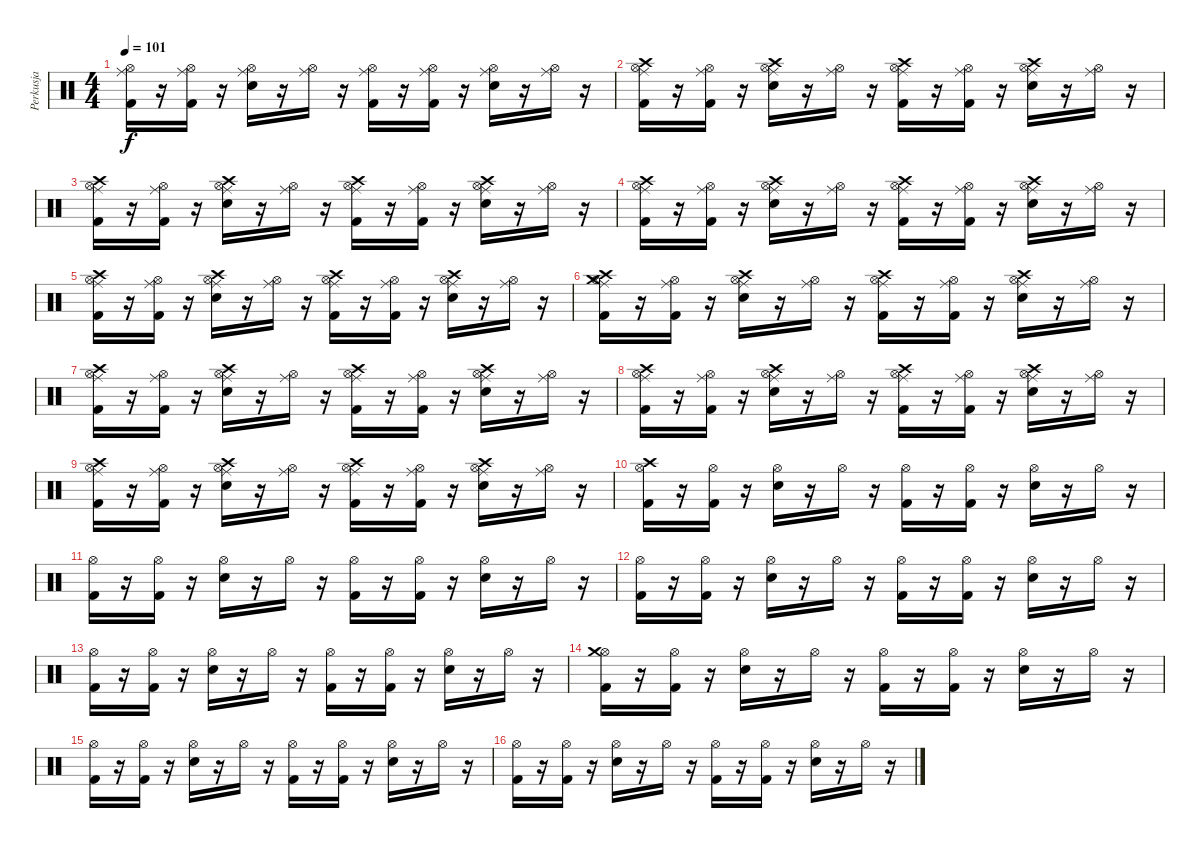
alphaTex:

\track ("Perkusja" "Perkusja") {instrument percussion}
\staff {score}
\articulation defaults
\ts (4 4)
\tempo 101
\clef neutral
\ks c
("Kick (hit) 2" "Hi-Hat (open)" "Ride (middle)").16{dy f} r.16 ("Kick (hit) 2" "Hi-Hat (open)" "Ride (middle)").16 r.16 ("Hi-Hat (open)" "Snare (hit) 2" "Ride (middle)").16 r.16 ("Ride (middle)" "Hi-Hat (open)").16 r.16 ("Ride (middle)" "Hi-Hat (open)" "Kick (hit) 2").16 r.16 ("Hi-Hat (open)" "Ride (middle)" "Kick (hit) 2").16 r.16 ("Hi-Hat (open)" "Ride (middle)" "Snare (hit) 2").16 r.16 ("Ride (middle)" "Hi-Hat (open)").16 r.16 |
("Kick (hit) 2" "Crash high (hit)" "Ride (middle)" "Hi-Hat (open)").16 r.16 ("Ride (middle)" "Kick (hit) 2" "Hi-Hat (open)").16 r.16 ("Crash high (hit)" "Hi-Hat (open)" "Ride (middle)" "Snare (hit) 2").16 r.16 ("Ride (middle)" "Hi-Hat (open)").16 r.16 ("Kick (hit) 2" "Ride (middle)" "Crash high (hit)" "Hi-Hat (open)").16 r.16 ("Hi-Hat (open)" "Kick (hit) 2" "Ride (middle)").16 r.16 ("Crash high (hit)" "Ride (middle)" "Snare (hit) 2" "Hi-Hat (open)").16 r.16 ("Ride (middle)" "Hi-Hat (open)").16 r.16 |
("Crash high (hit)" "Hi-Hat (open)" "Kick (hit) 2" "Ride (middle)").16 r.16 ("Hi-Hat (open)" "Ride (middle)" "Kick (hit) 2").16 r.16 ("Snare (hit) 2" "Hi-Hat (open)" "Ride (middle)" "Crash high (hit)").16 r.16 ("Hi-Hat (open)" "Ride (middle)").16 r.16 ("Crash high (hit)" "Hi-Hat (open)" "Kick (hit) 2" "Ride (middle)").16 r.16 ("Ride (middle)" "Hi-Hat (open)" "Kick (hit) 2").16 r.16 ("Crash high (hit)" "Snare (hit) 2" "Hi-Hat (open)" "Ride (middle)").16 r.16 ("Hi-Hat (open)" "Ride (middle)").16 r.16 |
("Ride (middle)" "Hi-Hat (open)" "Kick (hit) 2" "Crash high (hit)").16 r.16 ("Hi-Hat (open)" "Ride (middle)" "Kick (hit) 2").16 r.16 ("Crash high (hit)" "Ride (middle)" "Snare (hit) 2" "Hi-Hat (open)").16 r.16 ("Ride (middle)" "Hi-Hat (open)").16 r.16 ("Kick (hit) 2" "Ride (middle)" "Crash high (hit)" "Hi-Hat (open)").16 r.16 ("Ride (middle)" "Hi-Hat (open)" "Kick (hit) 2").16 r.16 ("Crash high (hit)" "Ride (middle)" "Hi-Hat (open)" "Snare (hit) 2").16 r.16 ("Ride (middle)" "Hi-Hat (open)").16 r.16 |
("Ride (middle)" "Hi-Hat (open)" "Kick (hit) 2" "Crash high (hit)").16 r.16 ("Kick (hit) 2" "Hi-Hat (open)" "Ride (middle)").16 r.16 ("Hi-Hat (open)" "Crash high (hit)" "Ride (middle)" "Snare (hit) 2").16 r.16 ("Hi-Hat (open)" "Ride (middle)").16 r.16 ("Kick (hit) 2" "Hi-Hat (open)" "Crash high (hit)" "Ride (middle)").16 r.16 ("Kick (hit) 2" "Hi-Hat (open)" "Ride (middle)").16 r.16 ("Ride (middle)" "Hi-Hat (open)" "Crash high (hit)" "Snare (hit) 2").16 r.16 ("Ride (middle)" "Hi-Hat (open)").16 r.16 |
("Hi-Hat (open)" "Crash medium (hit)" "Ride (middle)" "Crash high (hit)" "Kick (hit) 2").16 r.16 ("Ride (middle)" "Hi-Hat (open)" "Kick (hit) 2").16 r.16 ("Ride (middle)" "Snare (hit) 2" "Hi-Hat (open)" "Crash high (hit)").16 r.16 ("Hi-Hat (open)" "Ride (middle)").16 r.16 ("Hi-Hat (open)" "Crash high (hit)" "Ride (middle)" "Kick (hit) 2").16 r.16 ("Hi-Hat (open)" "Ride (middle)" "Kick (hit) 2").16 r.16 ("Hi-Hat (open)" "Crash high (hit)" "Ride (middle)" "Snare (hit) 2").16 r.16 ("Ride (middle)" "Hi-Hat (open)").16 r.16 |
("Ride (middle)" "Kick (hit) 2" "Hi-Hat (open)" "Crash high (hit)").16 r.16 ("Hi-Hat (open)" "Ride (middle)" "Kick (hit) 2").16 r.16 ("Ride (middle)" "Hi-Hat (open)" "Snare (hit) 2" "Crash high (hit)").16 r.16 ("Hi-Hat (open)" "Ride (middle)").16 r.16 ("Crash high (hit)" "Ride (middle)" "Kick (hit) 2" "Hi-Hat (open)").16 r.16 ("Ride (middle)" "Kick (hit) 2" "Hi-Hat (open)").16 r.16 ("Snare (hit) 2" "Ride (middle)" "Crash high (hit)" "Hi-Hat (open)").16 r.16 ("Ride (middle)" "Hi-Hat (open)").16 r.16 |
("Kick (hit) 2" "Hi-Hat (open)" "Crash high (hit)" "Ride (middle)").16 r.16 ("Hi-Hat (open)" "Kick (hit) 2" "Ride (middle)").16 r.16 ("Hi-Hat (open)" "Crash high (hit)" "Snare (hit) 2" "Ride (middle)").16 r.16 ("Hi-Hat (open)" "Ride (middle)").16 r.16 ("Crash high (hit)" "Ride (middle)" "Hi-Hat (open)" "Kick (hit) 2").16 r.16 ("Ride (middle)" "Kick (hit) 2" "Hi-Hat (open)").16 r.16 ("Crash high (hit)" "Ride (middle)" "Snare (hit) 2" "Hi-Hat (open)").16 r.16 ("Hi-Hat (open)" "Ride (middle)").16 r.16 |
("Kick (hit) 2" "Hi-Hat (open)" "Crash high (hit)" "Ride (middle)").16 r.16 ("Hi-Hat (open)" "Ride (middle)" "Kick (hit) 2").16 r.16 ("Ride (middle)" "Hi-Hat (open)" "Snare (hit) 2" "Crash high (hit)").16 r.16 ("Hi-Hat (open)" "Ride (middle)").16 r.16 ("Ride (middle)" "Crash high (hit)" "Hi-Hat (open)" "Kick (hit) 2").16 r.16 ("Kick (hit) 2" "Ride (middle)" "Hi-Hat (open)").16 r.16 ("Snare (hit) 2" "Hi-Hat (open)" "Crash high (hit)" "Ride (middle)").16 r.16 ("Hi-Hat (open)" "Ride (middle)").16 r.16 |
("Crash high (hit)" "Hi-Hat (open)" "Kick (hit) 2").16 r.16 ("Kick (hit) 2" "Hi-Hat (open)").16 r.16 ("Hi-Hat (open)" "Snare (hit) 2").16 r.16 "Hi-Hat (open)".16 r.16 ("Hi-Hat (open)" "Kick (hit) 2").16 r.16 ("Kick (hit) 2" "Hi-Hat (open)").16 r.16 ("Hi-Hat (open)" "Snare (hit) 2").16 r.16 "Hi-Hat (open)".16 r.16 |
("Hi-Hat (open)" "Kick (hit) 2").16 r.16 ("Hi-Hat (open)" "Kick (hit) 2").16 r.16 ("Snare (hit) 2" "Hi-Hat (open)").16 r.16 "Hi-Hat (open)".16 r.16 ("Hi-Hat (open)" "Kick (hit) 2").16 r.16 ("Hi-Hat (open)" "Kick (hit) 2").16 r.16 ("Snare (hit) 2" "Hi-Hat (open)").16 r.16 "Hi-Hat (open)".16 r.16 |
("Hi-Hat (open)" "Kick (hit) 2").16 r.16 ("Kick (hit) 2" "Hi-Hat (open)").16 r.16 ("Hi-Hat (open)" "Snare (hit) 2").16 r.16 "Hi-Hat (open)".16 r.16 ("Hi-Hat (open)" "Kick (hit) 2").16 r.16 ("Hi-Hat (open)" "Kick (hit) 2").16 r.16 ("Hi-Hat (open)" "Snare (hit) 2").16 r.16 "Hi-Hat (open)".16 r.16 |
("Hi-Hat (open)" "Kick (hit) 2").16 r.16 ("Kick (hit) 2" "Hi-Hat (open)").16 r.16 ("Hi-Hat (open)" "Snare (hit) 2").16 r.16 "Hi-Hat (open)".16 r.16 ("Hi-Hat (open)" "Kick (hit) 2").16 r.16 ("Kick (hit) 2" "Hi-Hat (open)").16 r.16 ("Hi-Hat (open)" "Snare (hit) 2").16 r.16 "Hi-Hat (open)".16 r.16 |
("Hi-Hat (open)" "Kick (hit) 2" "Crash medium (hit)").16 r.16 ("Kick (hit) 2" "Hi-Hat (open)").16 r.16 ("Hi-Hat (open)" "Snare (hit) 2").16 r.16 "Hi-Hat (open)".16 r.16 ("Kick (hit) 2" "Hi-Hat (open)").16 r.16 ("Hi-Hat (open)" "Kick (hit) 2").16 r.16 ("Hi-Hat (open)" "Snare (hit) 2").16 r.16 "Hi-Hat (open)".16 r.16 |
("Kick (hit) 2" "Hi-Hat (open)").16 r.16 ("Kick (hit) 2" "Hi-Hat (open)").16 r.16 ("Snare (hit) 2" "Hi-Hat (open)").16 r.16 "Hi-Hat (open)".16 r.16 ("Hi-Hat (open)" "Kick (hit) 2").16 r.16 ("Kick (hit) 2" "Hi-Hat (open)").16 r.16 ("Hi-Hat (open)" "Snare (hit) 2").16 r.16 "Hi-Hat (open)".16 r.16 |
("Hi-Hat (open)" "Kick (hit) 2").16 r.16 ("Kick (hit) 2" "Hi-Hat (open)").16 r.16 ("Snare (hit) 2" "Hi-Hat (open)").16 r.16 "Hi-Hat (open)".16 r.16 ("Hi-Hat (open)" "Kick (hit) 2").16 r.16 ("Kick (hit) 2" "Hi-Hat (open)").16 r.16 ("Snare (hit) 2" "Hi-Hat (open)").16 r.16 "Hi-Hat (open)".16 r.16
